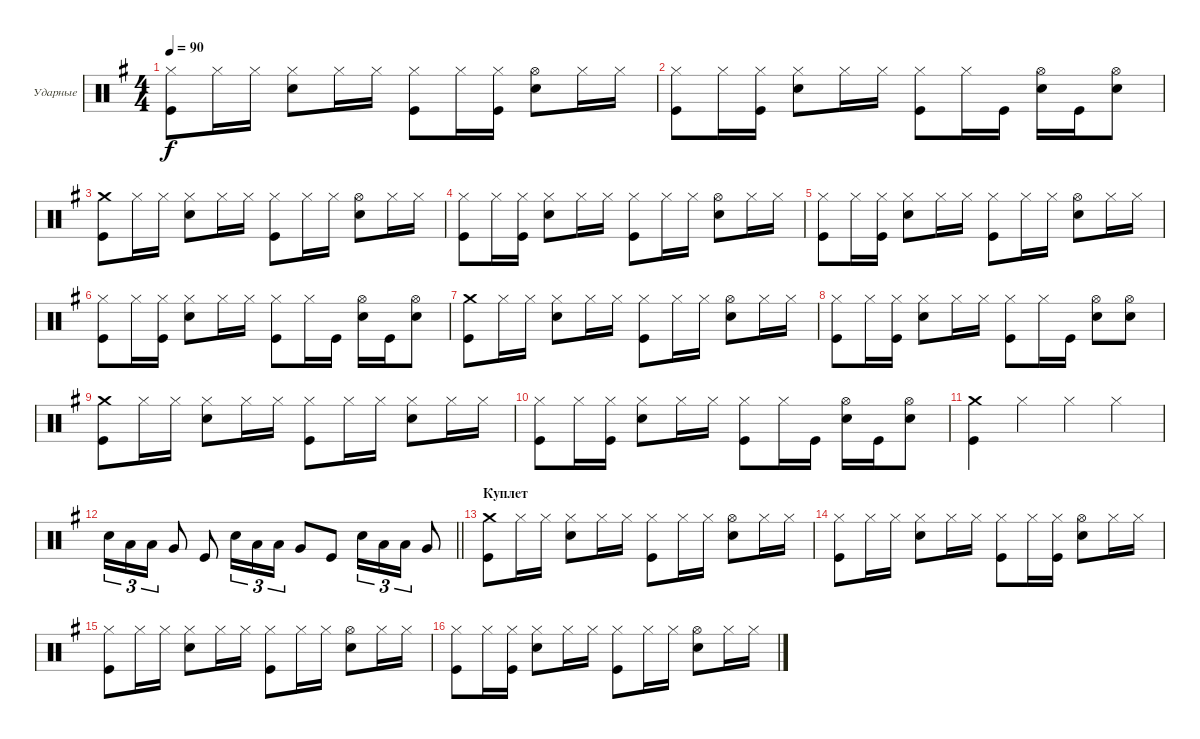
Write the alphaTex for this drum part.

\bracketExtendMode groupsimilarinstruments
\firstSystemTrackNameOrientation horizontal
\otherSystemsTrackNameOrientation horizontal
\track ("Александр Львов" "Ударные") {instrument percussion}
\staff {score}
\articulation defaults
\ts (4 4)
\tempo 90
\clef neutral
\ks eminor
("Kick (hit)" "Hi-Hat (closed)").8{dy f} "Hi-Hat (closed)".16 "Hi-Hat (closed)".16 ("Snare (hit) 2" "Hi-Hat (closed)").8 "Hi-Hat (closed)".16 "Hi-Hat (closed)".16 ("Hi-Hat (closed)" "Kick (hit)").8 "Hi-Hat (closed)".16 ("Hi-Hat (closed)" "Kick (hit)").16 ("Snare (hit) 2" "Hi-Hat (open)").8 "Hi-Hat (closed)".16 "Hi-Hat (closed)".16 |
("Kick (hit)" "Hi-Hat (closed)").8 "Hi-Hat (closed)".16 ("Hi-Hat (closed)" "Kick (hit)").16 ("Snare (hit) 2" "Hi-Hat (closed)").8 "Hi-Hat (closed)".16 "Hi-Hat (closed)".16 ("Hi-Hat (closed)" "Kick (hit)").8 "Hi-Hat (closed)".16 "Kick (hit)".16 ("Hi-Hat (open)" "Snare (hit) 2").16 "Kick (hit)".16 ("Hi-Hat (open)" "Snare (hit) 2").8 |
("Kick (hit)" "Crash medium (hit)").8 "Hi-Hat (closed)".16 "Hi-Hat (closed)".16 ("Snare (hit) 2" "Hi-Hat (closed)").8 "Hi-Hat (closed)".16 "Hi-Hat (closed)".16 ("Hi-Hat (closed)" "Kick (hit)").8 "Hi-Hat (closed)".16 "Hi-Hat (closed)".16 ("Snare (hit) 2" "Hi-Hat (open)").8 "Hi-Hat (closed)".16 "Hi-Hat (closed)".16 |
("Kick (hit)" "Hi-Hat (closed)").8 "Hi-Hat (closed)".16 ("Hi-Hat (closed)" "Kick (hit)").16 ("Snare (hit) 2" "Hi-Hat (closed)").8 "Hi-Hat (closed)".16 "Hi-Hat (closed)".16 ("Hi-Hat (closed)" "Kick (hit)").8 "Hi-Hat (closed)".16 "Hi-Hat (closed)".16 ("Snare (hit) 2" "Hi-Hat (open)").8 "Hi-Hat (closed)".16 "Hi-Hat (closed)".16 |
("Kick (hit)" "Hi-Hat (closed)").8 "Hi-Hat (closed)".16 ("Hi-Hat (closed)" "Kick (hit)").16 ("Snare (hit) 2" "Hi-Hat (closed)").8 "Hi-Hat (closed)".16 "Hi-Hat (closed)".16 ("Hi-Hat (closed)" "Kick (hit)").8 "Hi-Hat (closed)".16 "Hi-Hat (closed)".16 ("Snare (hit) 2" "Hi-Hat (open)").8 "Hi-Hat (closed)".16 "Hi-Hat (closed)".16 |
("Kick (hit)" "Hi-Hat (closed)").8 "Hi-Hat (closed)".16 ("Hi-Hat (closed)" "Kick (hit)").16 ("Snare (hit) 2" "Hi-Hat (closed)").8 "Hi-Hat (closed)".16 "Hi-Hat (closed)".16 ("Hi-Hat (closed)" "Kick (hit)").8 "Hi-Hat (closed)".16 "Kick (hit)".16 ("Hi-Hat (open)" "Snare (hit) 2").16 "Kick (hit)".16 ("Hi-Hat (open)" "Snare (hit) 2").8 |
("Kick (hit)" "Crash medium (hit)").8 "Hi-Hat (closed)".16 "Hi-Hat (closed)".16 ("Snare (hit) 2" "Hi-Hat (closed)").8 "Hi-Hat (closed)".16 "Hi-Hat (closed)".16 ("Hi-Hat (closed)" "Kick (hit)").8 "Hi-Hat (closed)".16 "Hi-Hat (closed)".16 ("Snare (hit) 2" "Hi-Hat (open)").8 "Hi-Hat (closed)".16 "Hi-Hat (closed)".16 |
("Kick (hit)" "Hi-Hat (closed)").8 "Hi-Hat (closed)".16 ("Hi-Hat (closed)" "Kick (hit)").16 ("Snare (hit) 2" "Hi-Hat (closed)").8 "Hi-Hat (closed)".16 "Hi-Hat (closed)".16 ("Hi-Hat (closed)" "Kick (hit)").8 "Hi-Hat (closed)".16 "Kick (hit)".16 ("Snare (hit) 2" "Hi-Hat (open)").8 ("Snare (hit) 2" "Hi-Hat (open)").8 |
("Kick (hit)" "Crash medium (hit)").8 "Hi-Hat (closed)".16 "Hi-Hat (closed)".16 ("Snare (hit) 2" "Hi-Hat (closed)").8 "Hi-Hat (closed)".16 "Hi-Hat (closed)".16 ("Hi-Hat (closed)" "Kick (hit)").8 "Hi-Hat (closed)".16 "Hi-Hat (closed)".16 ("Hi-Hat (closed)" "Snare (hit) 2").8 "Hi-Hat (closed)".16 "Hi-Hat (closed)".16 |
("Kick (hit)" "Hi-Hat (closed)").8 "Hi-Hat (closed)".16 ("Hi-Hat (closed)" "Kick (hit)").16 ("Snare (hit) 2" "Hi-Hat (closed)").8 "Hi-Hat (closed)".16 "Hi-Hat (closed)".16 ("Hi-Hat (closed)" "Kick (hit)").8 "Hi-Hat (closed)".16 "Kick (hit)".16 ("Hi-Hat (open)" "Snare (hit) 2").16 "Kick (hit)".16 ("Hi-Hat (open)" "Snare (hit) 2").8 |
("Kick (hit)" "Crash medium (hit)").4 "Hi-Hat (closed)".4 "Hi-Hat (closed)".4 "Hi-Hat (closed)".4 |
\barLineRight lightlight "Snare (hit) 2".16{tu (3 2)} "Low Tom (hit)".16{tu (3 2)} "Low Tom (hit)".16{tu (3 2)} "Very Low Tom (hit)".8 "Kick (hit)".8 "Snare (hit) 2".16{tu (3 2)} "Low Tom (hit)".16{tu (3 2)} "Low Tom (hit)".16{tu (3 2)} "Very Low Tom (hit)".8 "Kick (hit)".8 "Snare (hit) 2".16{tu (3 2)} "Low Tom (hit)".16{tu (3 2)} "Low Tom (hit)".16{tu (3 2)} "Very Low Tom (hit)".8
|
\section ("" "Куплет")
("Crash medium (hit)" "Kick (hit)").8 "Hi-Hat (closed)".16 "Hi-Hat (closed)".16 ("Hi-Hat (closed)" "Snare (hit) 2").8 "Hi-Hat (closed)".16 "Hi-Hat (closed)".16 ("Hi-Hat (closed)" "Kick (hit)").8 "Hi-Hat (closed)".16 "Hi-Hat (closed)".16 ("Snare (hit) 2" "Hi-Hat (open)").8 "Hi-Hat (closed)".16 "Hi-Hat (closed)".16 |
("Hi-Hat (closed)" "Kick (hit)").8 "Hi-Hat (closed)".16 "Hi-Hat (closed)".16 ("Hi-Hat (closed)" "Snare (hit) 2").8 "Hi-Hat (closed)".16 "Hi-Hat (closed)".16 ("Hi-Hat (closed)" "Kick (hit)").8 "Hi-Hat (closed)".16 ("Hi-Hat (closed)" "Kick (hit)").16 ("Snare (hit) 2" "Hi-Hat (open)").8 "Hi-Hat (closed)".16 "Hi-Hat (closed)".16 |
("Hi-Hat (closed)" "Kick (hit)").8 "Hi-Hat (closed)".16 "Hi-Hat (closed)".16 ("Hi-Hat (closed)" "Snare (hit) 2").8 "Hi-Hat (closed)".16 "Hi-Hat (closed)".16 ("Hi-Hat (closed)" "Kick (hit)").8 "Hi-Hat (closed)".16 "Hi-Hat (closed)".16 ("Snare (hit) 2" "Hi-Hat (open)").8 "Hi-Hat (closed)".16 "Hi-Hat (closed)".16 |
("Hi-Hat (closed)" "Kick (hit)").8 "Hi-Hat (closed)".16 ("Hi-Hat (closed)" "Kick (hit)").16 ("Hi-Hat (closed)" "Snare (hit) 2").8 "Hi-Hat (closed)".16 "Hi-Hat (closed)".16 ("Hi-Hat (closed)" "Kick (hit)").8 "Hi-Hat (closed)".16 "Hi-Hat (closed)".16 ("Snare (hit) 2" "Hi-Hat (open)").8 "Hi-Hat (closed)".16 "Hi-Hat (closed)".16
